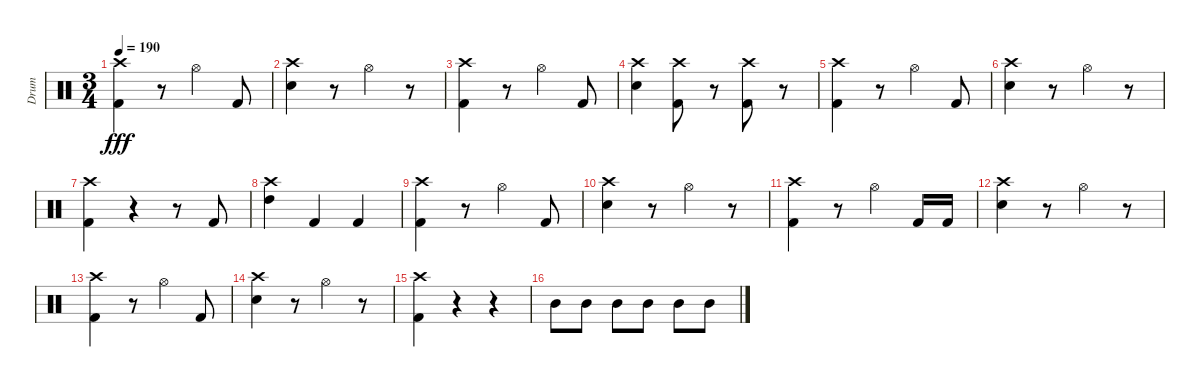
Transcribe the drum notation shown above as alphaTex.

\track ("Drum" "Drum") {instrument percussion}
\staff {score}
\articulation defaults
\ts (3 4)
\tempo 190
\clef neutral
\ks c
("Crash high (hit)" "Kick (hit) 2").4{dy fff} r.8 "Hi-Hat (open)".4 "Kick (hit) 2".8 |
("Crash high (hit)" "Snare (hit) 2").4 r.8 "Hi-Hat (open)".4 r.8 |
("Crash high (hit)" "Kick (hit) 2").4 r.8 "Hi-Hat (open)".4 "Kick (hit) 2".8 |
("Crash high (hit)" "Snare (hit) 2").4 ("Crash high (hit)" "Kick (hit) 2").8 r.8 ("Crash high (hit)" "Kick (hit) 2").8 r.8 |
("Crash high (hit)" "Kick (hit) 2").4 r.8 "Hi-Hat (open)".4 "Kick (hit) 2".8 |
("Crash high (hit)" "Snare (hit) 2").4 r.8 "Hi-Hat (open)".4 r.8 |
("Crash high (hit)" "Kick (hit) 2").4 r.4 r.8 "Kick (hit) 2".8 |
("Crash high (hit)" "High Tom (hit)").4 "Kick (hit) 2".4 "Kick (hit) 2".4 |
("Crash high (hit)" "Kick (hit) 2").4 r.8 "Hi-Hat (open)".4 "Kick (hit) 2".8 |
("Crash high (hit)" "Snare (hit) 2").4 r.8 "Hi-Hat (open)".4 r.8 |
("Crash high (hit)" "Kick (hit) 2").4 r.8 "Hi-Hat (open)".4 "Kick (hit) 2".16 "Kick (hit) 2".16 |
("Crash high (hit)" "Snare (hit) 2").4 r.8 "Hi-Hat (open)".4 r.8 |
("Crash high (hit)" "Kick (hit) 2").4 r.8 "Hi-Hat (open)".4 "Kick (hit) 2".8 |
("Crash high (hit)" "Snare (hit) 2").4 r.8 "Hi-Hat (open)".4 r.8 |
("Crash high (hit)" "Kick (hit) 2").4 r.4 r.4 |
"Mid Tom (hit)".8 "Mid Tom (hit)".8 "Mid Tom (hit)".8 "Mid Tom (hit)".8 "Mid Tom (hit)".8 "Mid Tom (hit)".8
